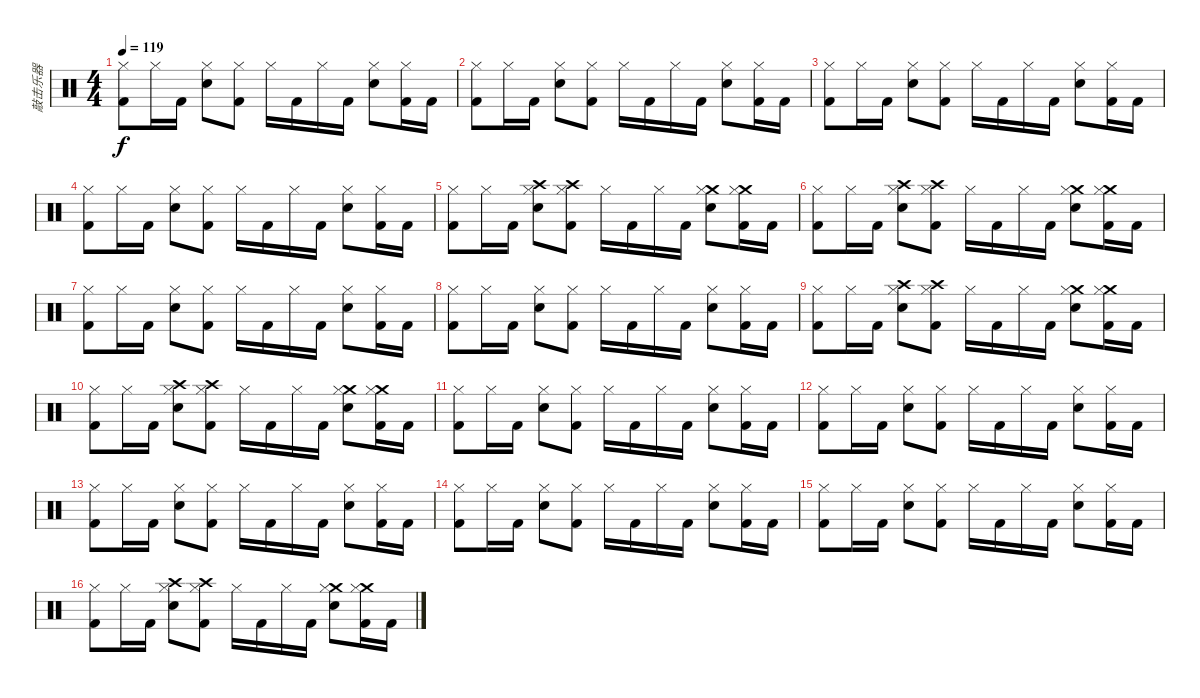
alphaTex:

\track ("敲击乐器" "敲击乐器") {instrument percussion}
\staff {score}
\articulation defaults
\ts (4 4)
\tempo 119
\clef neutral
\ks c
("Hi-Hat (closed)" "Kick (hit) 2").8{dy f} "Hi-Hat (closed)".16 "Kick (hit) 2".16 ("Hi-Hat (closed)" "Snare (hit) 2").8 ("Hi-Hat (closed)" "Kick (hit) 2").8 "Hi-Hat (closed)".16 "Kick (hit) 2".16 "Hi-Hat (closed)".16 "Kick (hit) 2".16 ("Hi-Hat (closed)" "Snare (hit) 2").8 ("Hi-Hat (closed)" "Kick (hit) 2").16 "Kick (hit) 2".16 |
("Hi-Hat (closed)" "Kick (hit) 2").8 "Hi-Hat (closed)".16 "Kick (hit) 2".16 ("Hi-Hat (closed)" "Snare (hit) 2").8 ("Hi-Hat (closed)" "Kick (hit) 2").8 "Hi-Hat (closed)".16 "Kick (hit) 2".16 "Hi-Hat (closed)".16 "Kick (hit) 2".16 ("Hi-Hat (closed)" "Snare (hit) 2").8 ("Hi-Hat (closed)" "Kick (hit) 2").16 "Kick (hit) 2".16 |
("Hi-Hat (closed)" "Kick (hit) 2").8 "Hi-Hat (closed)".16 "Kick (hit) 2".16 ("Hi-Hat (closed)" "Snare (hit) 2").8 ("Hi-Hat (closed)" "Kick (hit) 2").8 "Hi-Hat (closed)".16 "Kick (hit) 2".16 "Hi-Hat (closed)".16 "Kick (hit) 2".16 ("Hi-Hat (closed)" "Snare (hit) 2").8 ("Hi-Hat (closed)" "Kick (hit) 2").16 "Kick (hit) 2".16 |
("Hi-Hat (closed)" "Kick (hit) 2").8 "Hi-Hat (closed)".16 "Kick (hit) 2".16 ("Hi-Hat (closed)" "Snare (hit) 2").8 ("Hi-Hat (closed)" "Kick (hit) 2").8 "Hi-Hat (closed)".16 "Kick (hit) 2".16 "Hi-Hat (closed)".16 "Kick (hit) 2".16 ("Hi-Hat (closed)" "Snare (hit) 2").8 ("Hi-Hat (closed)" "Kick (hit) 2").16 "Kick (hit) 2".16 |
("Hi-Hat (closed)" "Kick (hit) 2").8 "Hi-Hat (closed)".16 "Kick (hit) 2".16 ("Crash high (hit)" "Hi-Hat (closed)" "Snare (hit) 2").8 ("Crash high (hit)" "Hi-Hat (closed)" "Kick (hit) 2").8 "Hi-Hat (closed)".16 "Kick (hit) 2".16 "Hi-Hat (closed)".16 "Kick (hit) 2".16 ("Crash medium (hit)" "Hi-Hat (closed)" "Snare (hit) 2").8 ("Crash medium (hit)" "Hi-Hat (closed)" "Kick (hit) 2").16 "Kick (hit) 2".16 |
("Hi-Hat (closed)" "Kick (hit) 2").8 "Hi-Hat (closed)".16 "Kick (hit) 2".16 ("Crash high (hit)" "Hi-Hat (closed)" "Snare (hit) 2").8 ("Crash high (hit)" "Hi-Hat (closed)" "Kick (hit) 2").8 "Hi-Hat (closed)".16 "Kick (hit) 2".16 "Hi-Hat (closed)".16 "Kick (hit) 2".16 ("Crash medium (hit)" "Hi-Hat (closed)" "Snare (hit) 2").8 ("Crash medium (hit)" "Hi-Hat (closed)" "Kick (hit) 2").16 "Kick (hit) 2".16 |
("Hi-Hat (closed)" "Kick (hit) 2").8 "Hi-Hat (closed)".16 "Kick (hit) 2".16 ("Hi-Hat (closed)" "Snare (hit) 2").8 ("Hi-Hat (closed)" "Kick (hit) 2").8 "Hi-Hat (closed)".16 "Kick (hit) 2".16 "Hi-Hat (closed)".16 "Kick (hit) 2".16 ("Hi-Hat (closed)" "Snare (hit) 2").8 ("Hi-Hat (closed)" "Kick (hit) 2").16 "Kick (hit) 2".16 |
("Hi-Hat (closed)" "Kick (hit) 2").8 "Hi-Hat (closed)".16 "Kick (hit) 2".16 ("Hi-Hat (closed)" "Snare (hit) 2").8 ("Hi-Hat (closed)" "Kick (hit) 2").8 "Hi-Hat (closed)".16 "Kick (hit) 2".16 "Hi-Hat (closed)".16 "Kick (hit) 2".16 ("Hi-Hat (closed)" "Snare (hit) 2").8 ("Hi-Hat (closed)" "Kick (hit) 2").16 "Kick (hit) 2".16 |
("Hi-Hat (closed)" "Kick (hit) 2").8 "Hi-Hat (closed)".16 "Kick (hit) 2".16 ("Crash high (hit)" "Hi-Hat (closed)" "Snare (hit) 2").8 ("Crash high (hit)" "Hi-Hat (closed)" "Kick (hit) 2").8 "Hi-Hat (closed)".16 "Kick (hit) 2".16 "Hi-Hat (closed)".16 "Kick (hit) 2".16 ("Crash medium (hit)" "Hi-Hat (closed)" "Snare (hit) 2").8 ("Crash medium (hit)" "Hi-Hat (closed)" "Kick (hit) 2").16 "Kick (hit) 2".16 |
("Hi-Hat (closed)" "Kick (hit) 2").8 "Hi-Hat (closed)".16 "Kick (hit) 2".16 ("Crash high (hit)" "Hi-Hat (closed)" "Snare (hit) 2").8 ("Crash high (hit)" "Hi-Hat (closed)" "Kick (hit) 2").8 "Hi-Hat (closed)".16 "Kick (hit) 2".16 "Hi-Hat (closed)".16 "Kick (hit) 2".16 ("Crash medium (hit)" "Hi-Hat (closed)" "Snare (hit) 2").8 ("Crash medium (hit)" "Hi-Hat (closed)" "Kick (hit) 2").16 "Kick (hit) 2".16 |
("Hi-Hat (closed)" "Kick (hit) 2").8 "Hi-Hat (closed)".16 "Kick (hit) 2".16 ("Hi-Hat (closed)" "Snare (hit) 2").8 ("Hi-Hat (closed)" "Kick (hit) 2").8 "Hi-Hat (closed)".16 "Kick (hit) 2".16 "Hi-Hat (closed)".16 "Kick (hit) 2".16 ("Hi-Hat (closed)" "Snare (hit) 2").8 ("Hi-Hat (closed)" "Kick (hit) 2").16 "Kick (hit) 2".16 |
("Hi-Hat (closed)" "Kick (hit) 2").8 "Hi-Hat (closed)".16 "Kick (hit) 2".16 ("Hi-Hat (closed)" "Snare (hit) 2").8 ("Hi-Hat (closed)" "Kick (hit) 2").8 "Hi-Hat (closed)".16 "Kick (hit) 2".16 "Hi-Hat (closed)".16 "Kick (hit) 2".16 ("Hi-Hat (closed)" "Snare (hit) 2").8 ("Hi-Hat (closed)" "Kick (hit) 2").16 "Kick (hit) 2".16 |
("Hi-Hat (closed)" "Kick (hit) 2").8 "Hi-Hat (closed)".16 "Kick (hit) 2".16 ("Hi-Hat (closed)" "Snare (hit) 2").8 ("Hi-Hat (closed)" "Kick (hit) 2").8 "Hi-Hat (closed)".16 "Kick (hit) 2".16 "Hi-Hat (closed)".16 "Kick (hit) 2".16 ("Hi-Hat (closed)" "Snare (hit) 2").8 ("Hi-Hat (closed)" "Kick (hit) 2").16 "Kick (hit) 2".16 |
("Hi-Hat (closed)" "Kick (hit) 2").8 "Hi-Hat (closed)".16 "Kick (hit) 2".16 ("Hi-Hat (closed)" "Snare (hit) 2").8 ("Hi-Hat (closed)" "Kick (hit) 2").8 "Hi-Hat (closed)".16 "Kick (hit) 2".16 "Hi-Hat (closed)".16 "Kick (hit) 2".16 ("Hi-Hat (closed)" "Snare (hit) 2").8 ("Hi-Hat (closed)" "Kick (hit) 2").16 "Kick (hit) 2".16 |
("Hi-Hat (closed)" "Kick (hit) 2").8 "Hi-Hat (closed)".16 "Kick (hit) 2".16 ("Hi-Hat (closed)" "Snare (hit) 2").8 ("Hi-Hat (closed)" "Kick (hit) 2").8 "Hi-Hat (closed)".16 "Kick (hit) 2".16 "Hi-Hat (closed)".16 "Kick (hit) 2".16 ("Hi-Hat (closed)" "Snare (hit) 2").8 ("Hi-Hat (closed)" "Kick (hit) 2").16 "Kick (hit) 2".16 |
("Hi-Hat (closed)" "Kick (hit) 2").8 "Hi-Hat (closed)".16 "Kick (hit) 2".16 ("Crash high (hit)" "Hi-Hat (closed)" "Snare (hit) 2").8 ("Crash high (hit)" "Hi-Hat (closed)" "Kick (hit) 2").8 "Hi-Hat (closed)".16 "Kick (hit) 2".16 "Hi-Hat (closed)".16 "Kick (hit) 2".16 ("Crash medium (hit)" "Hi-Hat (closed)" "Snare (hit) 2").8 ("Crash medium (hit)" "Hi-Hat (closed)" "Kick (hit) 2").16 "Kick (hit) 2".16
